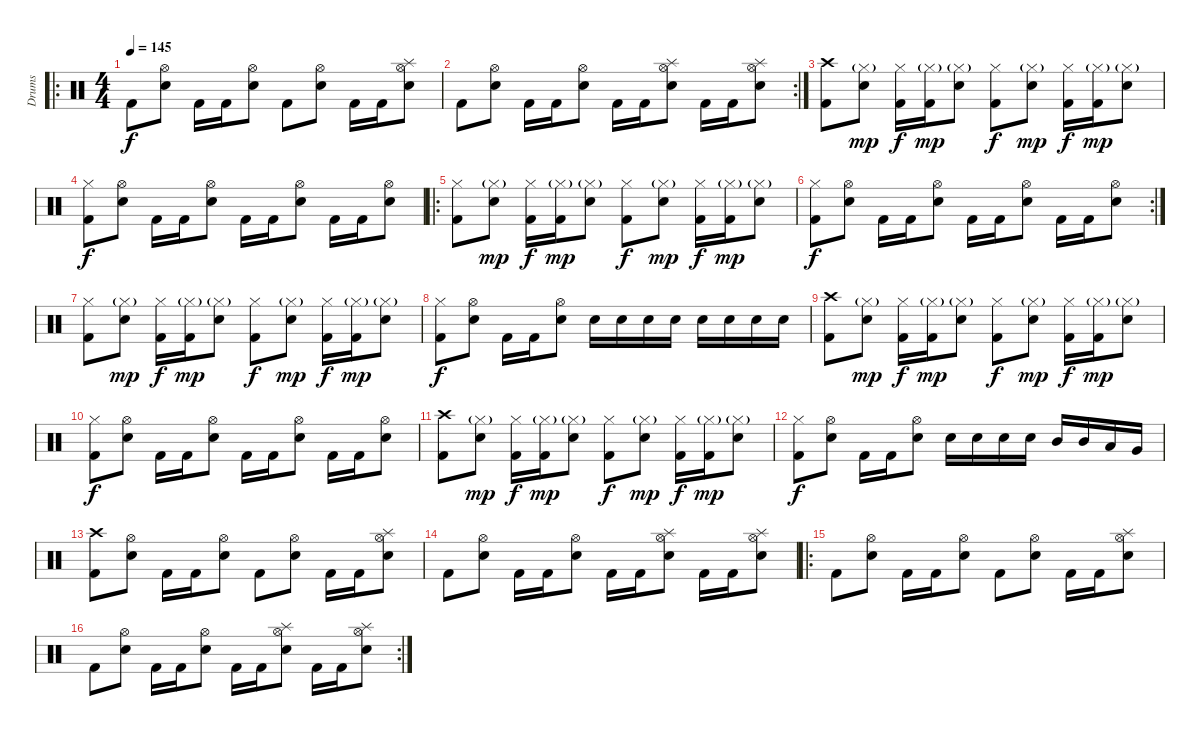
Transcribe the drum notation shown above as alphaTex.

\track ("Drums" "Drums") {instrument percussion}
\staff {score}
\articulation defaults
\ro
\ts (4 4)
\tempo 145
\clef neutral
\ks c "Kick (hit) 2".8{dy f}
("Snare (hit) 2" "Hi-Hat (open)").8 "Kick (hit) 2".16 "Kick (hit) 2".16 ("Snare (hit) 2" "Hi-Hat (open)").8 "Kick (hit) 2".8 ("Snare (hit) 2" "Hi-Hat (open)").8 "Kick (hit) 2".16 "Kick (hit) 2".16 ("Snare (hit) 2" "Splash (hit)" "Hi-Hat (open)").8 |
\rc 2 "Kick (hit) 2".8
("Snare (hit) 2" "Hi-Hat (open)").8 "Kick (hit) 2".16 "Kick (hit) 2".16 ("Snare (hit) 2" "Hi-Hat (open)").8 "Kick (hit) 2".16 "Kick (hit) 2".16 ("Snare (hit) 2" "Splash (hit)" "Hi-Hat (open)").8 "Kick (hit) 2".16 "Kick (hit) 2".16 ("Snare (hit) 2" "Splash (hit)" "Hi-Hat (open)").8 |
("Kick (hit) 2" "Crash high (hit)").8 ("Snare (hit) 2" "Hi-Hat (closed)"{g}).8{dy mp} ("Kick (hit) 2" "Hi-Hat (closed)").16{dy f} ("Kick (hit) 2" "Hi-Hat (closed)"{g}).16{dy mp} ("Snare (hit) 2" "Hi-Hat (closed)"{g}).8 ("Kick (hit) 2" "Hi-Hat (closed)").8{dy f} ("Snare (hit) 2" "Hi-Hat (closed)"{g}).8{dy mp} ("Kick (hit) 2" "Hi-Hat (closed)").16{dy f} ("Kick (hit) 2" "Hi-Hat (closed)"{g}).16{dy mp} ("Snare (hit) 2" "Hi-Hat (closed)"{g}).8 |
("Kick (hit) 2" "Hi-Hat (closed)").8{dy f} ("Snare (hit) 2" "Hi-Hat (open)").8 "Kick (hit) 2".16 "Kick (hit) 2".16 ("Snare (hit) 2" "Hi-Hat (open)").8 "Kick (hit) 2".16 "Kick (hit) 2".16 ("Snare (hit) 2" "Hi-Hat (open)").8 "Kick (hit) 2".16 "Kick (hit) 2".16 ("Snare (hit) 2" "Hi-Hat (open)").8 |
\ro
("Kick (hit) 2" "Hi-Hat (closed)").8 ("Snare (hit) 2" "Hi-Hat (closed)"{g}).8{dy mp} ("Kick (hit) 2" "Hi-Hat (closed)").16{dy f} ("Kick (hit) 2" "Hi-Hat (closed)"{g}).16{dy mp} ("Snare (hit) 2" "Hi-Hat (closed)"{g}).8 ("Kick (hit) 2" "Hi-Hat (closed)").8{dy f} ("Snare (hit) 2" "Hi-Hat (closed)"{g}).8{dy mp} ("Kick (hit) 2" "Hi-Hat (closed)").16{dy f} ("Kick (hit) 2" "Hi-Hat (closed)"{g}).16{dy mp} ("Snare (hit) 2" "Hi-Hat (closed)"{g}).8 |
\rc 2
("Kick (hit) 2" "Hi-Hat (closed)").8{dy f} ("Snare (hit) 2" "Hi-Hat (open)").8 "Kick (hit) 2".16 "Kick (hit) 2".16 ("Snare (hit) 2" "Hi-Hat (open)").8 "Kick (hit) 2".16 "Kick (hit) 2".16 ("Snare (hit) 2" "Hi-Hat (open)").8 "Kick (hit) 2".16 "Kick (hit) 2".16 ("Snare (hit) 2" "Hi-Hat (open)").8 |
("Kick (hit) 2" "Hi-Hat (closed)").8 ("Snare (hit) 2" "Hi-Hat (closed)"{g}).8{dy mp} ("Kick (hit) 2" "Hi-Hat (closed)").16{dy f} ("Kick (hit) 2" "Hi-Hat (closed)"{g}).16{dy mp} ("Snare (hit) 2" "Hi-Hat (closed)"{g}).8 ("Kick (hit) 2" "Hi-Hat (closed)").8{dy f} ("Snare (hit) 2" "Hi-Hat (closed)"{g}).8{dy mp} ("Kick (hit) 2" "Hi-Hat (closed)").16{dy f} ("Kick (hit) 2" "Hi-Hat (closed)"{g}).16{dy mp} ("Snare (hit) 2" "Hi-Hat (closed)"{g}).8 |
("Kick (hit) 2" "Hi-Hat (closed)").8{dy f} ("Snare (hit) 2" "Hi-Hat (open)").8 "Kick (hit) 2".16 "Kick (hit) 2".16 ("Snare (hit) 2" "Hi-Hat (open)").8 "Snare (hit) 2".16 "Snare (hit) 2".16 "Snare (hit) 2".16 "Snare (hit) 2".16 "Snare (hit) 2".16 "Snare (hit) 2".16 "Snare (hit) 2".16 "Snare (hit) 2".16 |
("Kick (hit) 2" "Crash high (hit)").8 ("Snare (hit) 2" "Hi-Hat (closed)"{g}).8{dy mp} ("Kick (hit) 2" "Hi-Hat (closed)").16{dy f} ("Kick (hit) 2" "Hi-Hat (closed)"{g}).16{dy mp} ("Snare (hit) 2" "Hi-Hat (closed)"{g}).8 ("Kick (hit) 2" "Hi-Hat (closed)").8{dy f} ("Snare (hit) 2" "Hi-Hat (closed)"{g}).8{dy mp} ("Kick (hit) 2" "Hi-Hat (closed)").16{dy f} ("Kick (hit) 2" "Hi-Hat (closed)"{g}).16{dy mp} ("Snare (hit) 2" "Hi-Hat (closed)"{g}).8 |
("Kick (hit) 2" "Hi-Hat (closed)").8{dy f} ("Snare (hit) 2" "Hi-Hat (open)").8 "Kick (hit) 2".16 "Kick (hit) 2".16 ("Snare (hit) 2" "Hi-Hat (open)").8 "Kick (hit) 2".16 "Kick (hit) 2".16 ("Snare (hit) 2" "Hi-Hat (open)").8 "Kick (hit) 2".16 "Kick (hit) 2".16 ("Snare (hit) 2" "Hi-Hat (open)").8 |
("Kick (hit) 2" "Crash high (hit)").8 ("Snare (hit) 2" "Hi-Hat (closed)"{g}).8{dy mp} ("Kick (hit) 2" "Hi-Hat (closed)").16{dy f} ("Kick (hit) 2" "Hi-Hat (closed)"{g}).16{dy mp} ("Snare (hit) 2" "Hi-Hat (closed)"{g}).8 ("Kick (hit) 2" "Hi-Hat (closed)").8{dy f} ("Snare (hit) 2" "Hi-Hat (closed)"{g}).8{dy mp} ("Kick (hit) 2" "Hi-Hat (closed)").16{dy f} ("Kick (hit) 2" "Hi-Hat (closed)"{g}).16{dy mp} ("Snare (hit) 2" "Hi-Hat (closed)"{g}).8 |
("Kick (hit) 2" "Hi-Hat (closed)").8{dy f} ("Snare (hit) 2" "Hi-Hat (open)").8 "Kick (hit) 2".16 "Kick (hit) 2".16 ("Snare (hit) 2" "Hi-Hat (open)").8 "Snare (hit) 2".16 "Snare (hit) 2".16 "Snare (hit) 2".16 "Snare (hit) 2".16 "Mid Tom (hit)".16 "Mid Tom (hit)".16 "Low Tom (hit)".16 "Very Low Tom (hit)".16 |
("Kick (hit) 2" "Crash high (hit)").8 ("Snare (hit) 2" "Hi-Hat (open)").8 "Kick (hit) 2".16 "Kick (hit) 2".16 ("Snare (hit) 2" "Hi-Hat (open)").8 "Kick (hit) 2".8 ("Snare (hit) 2" "Hi-Hat (open)").8 "Kick (hit) 2".16 "Kick (hit) 2".16 ("Snare (hit) 2" "Splash (hit)" "Hi-Hat (open)").8 |
"Kick (hit) 2".8 ("Snare (hit) 2" "Hi-Hat (open)").8 "Kick (hit) 2".16 "Kick (hit) 2".16 ("Snare (hit) 2" "Hi-Hat (open)").8 "Kick (hit) 2".16 "Kick (hit) 2".16 ("Snare (hit) 2" "Splash (hit)" "Hi-Hat (open)").8 "Kick (hit) 2".16 "Kick (hit) 2".16 ("Snare (hit) 2" "Splash (hit)" "Hi-Hat (open)").8 |
\ro "Kick (hit) 2".8
("Snare (hit) 2" "Hi-Hat (open)").8 "Kick (hit) 2".16 "Kick (hit) 2".16 ("Snare (hit) 2" "Hi-Hat (open)").8 "Kick (hit) 2".8 ("Snare (hit) 2" "Hi-Hat (open)").8 "Kick (hit) 2".16 "Kick (hit) 2".16 ("Snare (hit) 2" "Splash (hit)" "Hi-Hat (open)").8 |
\rc 2 "Kick (hit) 2".8
("Snare (hit) 2" "Hi-Hat (open)").8 "Kick (hit) 2".16 "Kick (hit) 2".16 ("Snare (hit) 2" "Hi-Hat (open)").8 "Kick (hit) 2".16 "Kick (hit) 2".16 ("Snare (hit) 2" "Splash (hit)" "Hi-Hat (open)").8 "Kick (hit) 2".16 "Kick (hit) 2".16 ("Snare (hit) 2" "Splash (hit)" "Hi-Hat (open)").8
